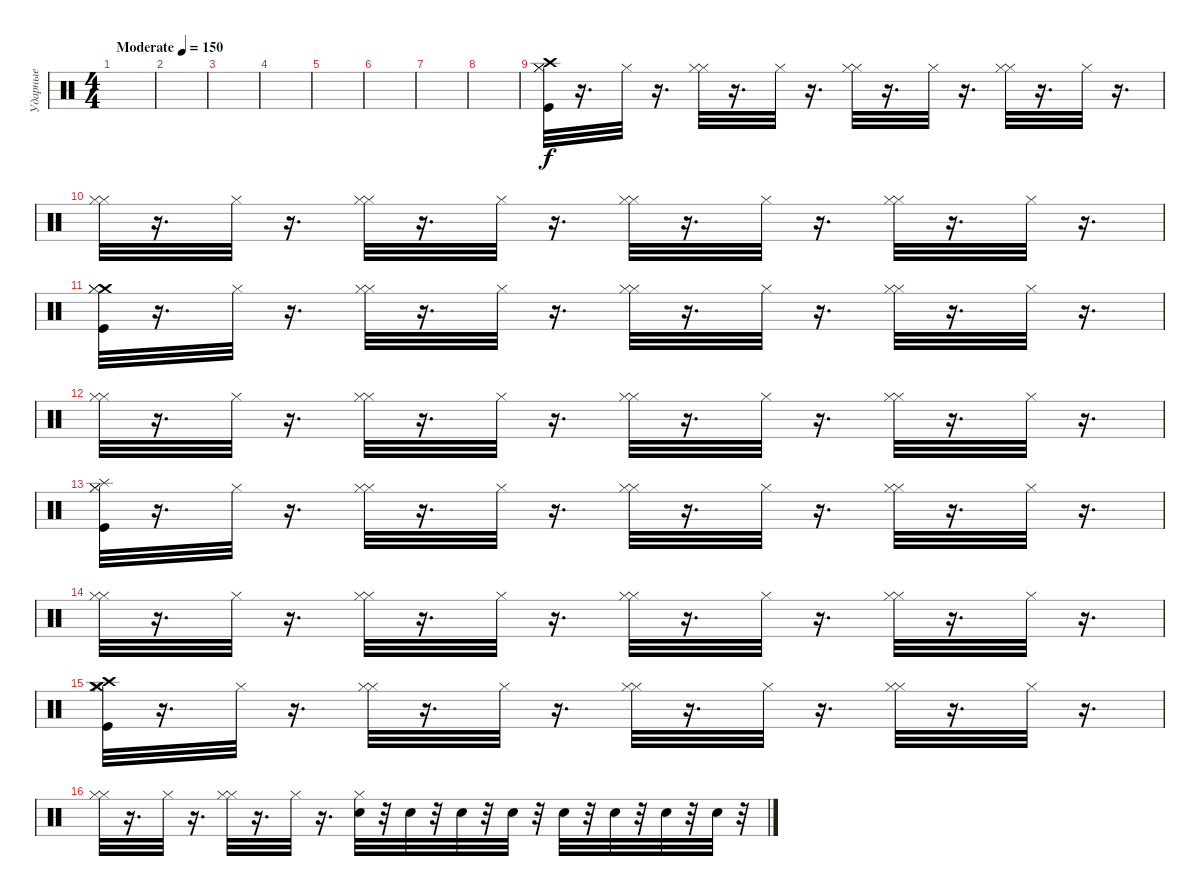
\track ("Ударные" "Ударные") {instrument percussion}
\staff {score}
\articulation defaults
\ts (4 4)
\tempo (150 "Moderate")
\clef neutral
\ks c
|
|
|
|
|
|
|
|
("Crash high (hit)" "Kick (hit)" "Hi-Hat (closed)" "Hi-Hat (closed)").32 r.16{d} "Hi-Hat (closed)".32 r.16{d} ("Hi-Hat (closed)" "Hi-Hat (closed)").32 r.16{d} "Hi-Hat (closed)".32 r.16{d} ("Hi-Hat (closed)" "Hi-Hat (closed)").32 r.16{d} "Hi-Hat (closed)".32 r.16{d} ("Hi-Hat (closed)" "Hi-Hat (closed)").32 r.16{d} "Hi-Hat (closed)".32 r.16{d} |
("Hi-Hat (closed)" "Hi-Hat (closed)").32 r.16{d} "Hi-Hat (closed)".32 r.16{d} ("Hi-Hat (closed)" "Hi-Hat (closed)").32 r.16{d} "Hi-Hat (closed)".32 r.16{d} ("Hi-Hat (closed)" "Hi-Hat (closed)").32 r.16{d} "Hi-Hat (closed)".32 r.16{d} ("Hi-Hat (closed)" "Hi-Hat (closed)").32 r.16{d} "Hi-Hat (closed)".32 r.16{d} |
("Crash medium (hit)" "Kick (hit)" "Hi-Hat (closed)" "Hi-Hat (closed)").32 r.16{d} "Hi-Hat (closed)".32 r.16{d} ("Hi-Hat (closed)" "Hi-Hat (closed)").32 r.16{d} "Hi-Hat (closed)".32 r.16{d} ("Hi-Hat (closed)" "Hi-Hat (closed)").32 r.16{d} "Hi-Hat (closed)".32 r.16{d} ("Hi-Hat (closed)" "Hi-Hat (closed)").32 r.16{d} "Hi-Hat (closed)".32 r.16{d} |
("Hi-Hat (closed)" "Hi-Hat (closed)").32 r.16{d} "Hi-Hat (closed)".32 r.16{d} ("Hi-Hat (closed)" "Hi-Hat (closed)").32 r.16{d} "Hi-Hat (closed)".32 r.16{d} ("Hi-Hat (closed)" "Hi-Hat (closed)").32 r.16{d} "Hi-Hat (closed)".32 r.16{d} ("Hi-Hat (closed)" "Hi-Hat (closed)").32 r.16{d} "Hi-Hat (closed)".32 r.16{d} |
("Kick (hit)" "Splash (hit)" "Hi-Hat (closed)" "Hi-Hat (closed)").32 r.16{d} "Hi-Hat (closed)".32 r.16{d} ("Hi-Hat (closed)" "Hi-Hat (closed)").32 r.16{d} "Hi-Hat (closed)".32 r.16{d} ("Hi-Hat (closed)" "Hi-Hat (closed)").32 r.16{d} "Hi-Hat (closed)".32 r.16{d} ("Hi-Hat (closed)" "Hi-Hat (closed)").32 r.16{d} "Hi-Hat (closed)".32 r.16{d} |
("Hi-Hat (closed)" "Hi-Hat (closed)").32 r.16{d} "Hi-Hat (closed)".32 r.16{d} ("Hi-Hat (closed)" "Hi-Hat (closed)").32 r.16{d} "Hi-Hat (closed)".32 r.16{d} ("Hi-Hat (closed)" "Hi-Hat (closed)").32 r.16{d} "Hi-Hat (closed)".32 r.16{d} ("Hi-Hat (closed)" "Hi-Hat (closed)").32 r.16{d} "Hi-Hat (closed)".32 r.16{d} |
("Crash medium (hit)" "Crash high (hit)" "Kick (hit)" "Hi-Hat (closed)" "Hi-Hat (closed)").32 r.16{d} "Hi-Hat (closed)".32 r.16{d} ("Hi-Hat (closed)" "Hi-Hat (closed)").32 r.16{d} "Hi-Hat (closed)".32 r.16{d} ("Hi-Hat (closed)" "Hi-Hat (closed)").32 r.16{d} "Hi-Hat (closed)".32 r.16{d} ("Hi-Hat (closed)" "Hi-Hat (closed)").32 r.16{d} "Hi-Hat (closed)".32 r.16{d} |
("Hi-Hat (closed)" "Hi-Hat (closed)").32 r.16{d} "Hi-Hat (closed)".32 r.16{d} ("Hi-Hat (closed)" "Hi-Hat (closed)").32 r.16{d} "Hi-Hat (closed)".32 r.16{d} ("Hi-Hat (closed)" "Snare (hit) 2").32 r.32 "Snare (hit) 2".32 r.32 "Snare (hit) 2".32 r.32 "Snare (hit) 2".32 r.32 "Snare (hit) 2".32 r.32 "Snare (hit) 2".32 r.32 "Snare (hit) 2".32 r.32 "Snare (hit) 2".32 r.32
